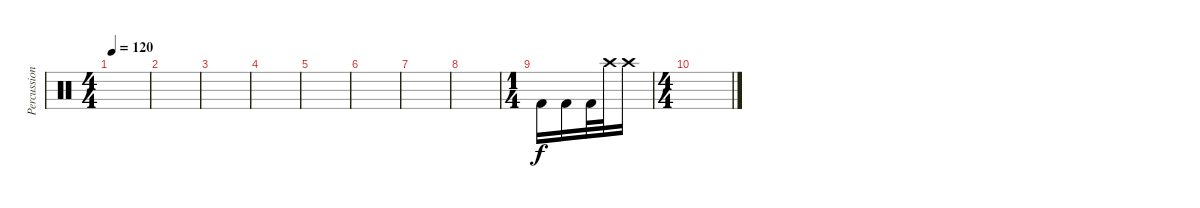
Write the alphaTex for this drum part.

\track ("Percussion" "Percussion") {instrument percussion}
\staff {score}
\articulation defaults
\ts (4 4)
\tempo 120
\clef neutral
\ks c
|
|
|
|
|
|
|
|
\ts (1 4)
"Kick (hit) 2".16 "Kick (hit) 2".16 "Kick (hit) 2".32 "Crash high (hit)".32 "Crash high (hit)".16 |
\ts (4 4)
